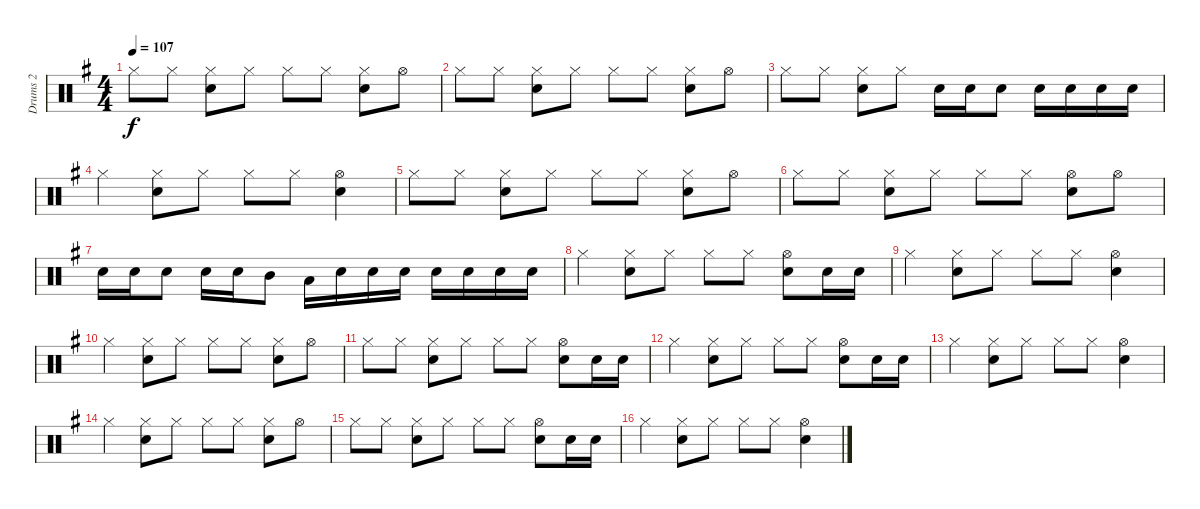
\track ("Drums 2" "Drums 2") {instrument percussion}
\staff {score}
\articulation defaults
\ts (4 4)
\tempo 107
\clef neutral
\ks g "Hi-Hat (closed)".8{dy f} "Hi-Hat (closed)".8
("Hi-Hat (closed)" "Snare (hit) 2").8 "Hi-Hat (closed)".8 "Hi-Hat (closed)".8 "Hi-Hat (closed)".8 ("Snare (hit) 2" "Hi-Hat (closed)").8 "Hi-Hat (open)".8 |
"Hi-Hat (closed)".8 "Hi-Hat (closed)".8 ("Hi-Hat (closed)" "Snare (hit) 2").8 "Hi-Hat (closed)".8 "Hi-Hat (closed)".8 "Hi-Hat (closed)".8 ("Snare (hit) 2" "Hi-Hat (closed)").8 "Hi-Hat (open)".8 |
"Hi-Hat (closed)".8 "Hi-Hat (closed)".8 ("Hi-Hat (closed)" "Snare (hit) 2").8 "Hi-Hat (closed)".8 "Snare (hit) 2".16 "Snare (hit) 2".16 "Snare (hit) 2".8 "Snare (hit) 2".16 "Snare (hit) 2".16 "Snare (hit) 2".16 "Snare (hit) 2".16 |
"Hi-Hat (closed)".4 ("Hi-Hat (closed)" "Snare (hit) 2").8 "Hi-Hat (closed)".8 "Hi-Hat (closed)".8 "Hi-Hat (closed)".8 ("Hi-Hat (open)" "Snare (hit) 2").4 |
"Hi-Hat (closed)".8 "Hi-Hat (closed)".8 ("Hi-Hat (closed)" "Snare (hit) 2").8 "Hi-Hat (closed)".8 "Hi-Hat (closed)".8 "Hi-Hat (closed)".8 ("Snare (hit) 2" "Hi-Hat (closed)").8 "Hi-Hat (open)".8 |
"Hi-Hat (closed)".8 "Hi-Hat (closed)".8 ("Hi-Hat (closed)" "Snare (hit) 2").8 "Hi-Hat (closed)".8 "Hi-Hat (closed)".8 "Hi-Hat (closed)".8 ("Snare (hit) 2" "Hi-Hat (open)").8 "Hi-Hat (open)".8 |
"Snare (hit) 2".16 "Snare (hit) 2".16 "Snare (hit) 2".8 "Snare (hit) 2".16 "Snare (hit) 2".16 "Mid Tom (hit)".8 "Low Tom (hit)".16 "Snare (hit) 2".16 "Snare (hit) 2".16 "Snare (hit) 2".16 "Snare (hit) 2".16 "Snare (hit) 2".16 "Snare (hit) 2".16 "Snare (hit) 2".16 |
"Hi-Hat (closed)".4 ("Snare (hit) 2" "Hi-Hat (closed)").8 "Hi-Hat (closed)".8 "Hi-Hat (closed)".8 "Hi-Hat (closed)".8 ("Hi-Hat (open)" "Snare (hit) 2").8 "Snare (hit) 2".16 "Snare (hit) 2".16 |
"Hi-Hat (closed)".4 ("Hi-Hat (closed)" "Snare (hit) 2").8 "Hi-Hat (closed)".8 "Hi-Hat (closed)".8 "Hi-Hat (closed)".8 ("Hi-Hat (open)" "Snare (hit) 2").4 |
"Hi-Hat (closed)".4 ("Hi-Hat (closed)" "Snare (hit) 2").8 "Hi-Hat (closed)".8 "Hi-Hat (closed)".8 "Hi-Hat (closed)".8 ("Hi-Hat (closed)" "Snare (hit) 2").8 "Hi-Hat (open)".8 |
"Hi-Hat (closed)".8 "Hi-Hat (closed)".8 ("Snare (hit) 2" "Hi-Hat (closed)").8 "Hi-Hat (closed)".8 "Hi-Hat (closed)".8 "Hi-Hat (closed)".8 ("Hi-Hat (open)" "Snare (hit) 2").8 "Snare (hit) 2".16 "Snare (hit) 2".16 |
"Hi-Hat (closed)".4 ("Snare (hit) 2" "Hi-Hat (closed)").8 "Hi-Hat (closed)".8 "Hi-Hat (closed)".8 "Hi-Hat (closed)".8 ("Hi-Hat (open)" "Snare (hit) 2").8 "Snare (hit) 2".16 "Snare (hit) 2".16 |
"Hi-Hat (closed)".4 ("Hi-Hat (closed)" "Snare (hit) 2").8 "Hi-Hat (closed)".8 "Hi-Hat (closed)".8 "Hi-Hat (closed)".8 ("Hi-Hat (open)" "Snare (hit) 2").4 |
"Hi-Hat (closed)".4 ("Hi-Hat (closed)" "Snare (hit) 2").8 "Hi-Hat (closed)".8 "Hi-Hat (closed)".8 "Hi-Hat (closed)".8 ("Hi-Hat (closed)" "Snare (hit) 2").8 "Hi-Hat (open)".8 |
"Hi-Hat (closed)".8 "Hi-Hat (closed)".8 ("Snare (hit) 2" "Hi-Hat (closed)").8 "Hi-Hat (closed)".8 "Hi-Hat (closed)".8 "Hi-Hat (closed)".8 ("Hi-Hat (open)" "Snare (hit) 2").8 "Snare (hit) 2".16 "Snare (hit) 2".16 |
"Hi-Hat (closed)".4 ("Hi-Hat (closed)" "Snare (hit) 2").8 "Hi-Hat (closed)".8 "Hi-Hat (closed)".8 "Hi-Hat (closed)".8 ("Hi-Hat (open)" "Snare (hit) 2").4
